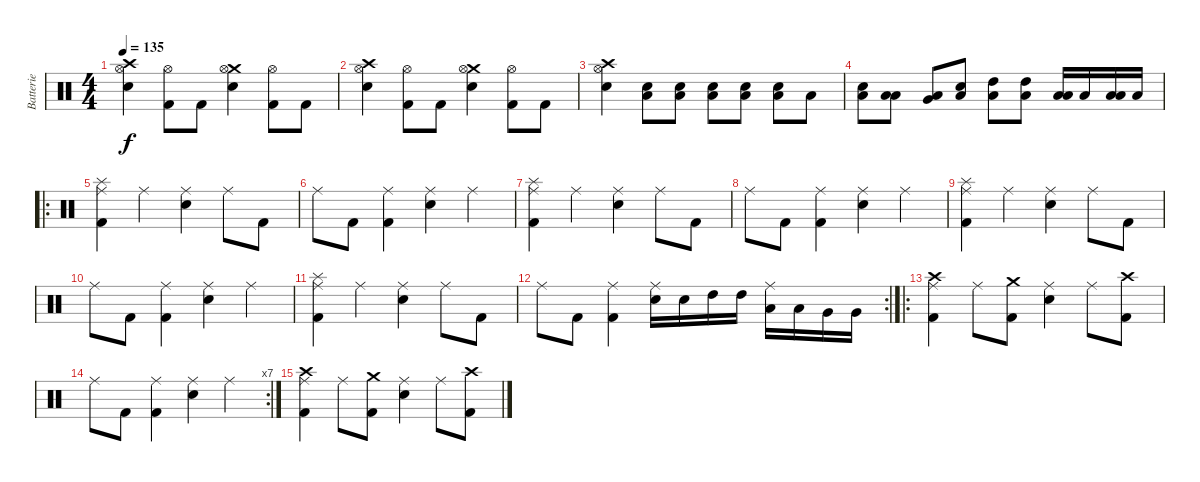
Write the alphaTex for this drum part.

\track ("Batterie" "Batterie") {instrument percussion}
\staff {score}
\articulation defaults
\ts (4 4)
\tempo 135
\clef neutral
\ks c
("Crash high (hit)" "Hi-Hat (open)" "Snare (hit) 2").4{dy f} ("Hi-Hat (open)" "Kick (hit) 2").8 "Kick (hit) 2".8 ("Crash medium (hit)" "Hi-Hat (open)" "Snare (hit) 2").4 ("Hi-Hat (open)" "Kick (hit) 2").8 "Kick (hit) 2".8 |
("Crash high (hit)" "Hi-Hat (open)" "Snare (hit) 2").4 ("Hi-Hat (open)" "Kick (hit) 2").8 "Kick (hit) 2".8 ("Crash medium (hit)" "Hi-Hat (open)" "Snare (hit) 2").4 ("Hi-Hat (open)" "Kick (hit) 2").8 "Kick (hit) 2".8 |
("Crash high (hit)" "Snare (hit) 2" "Hi-Hat (open)").4 ("Snare (hit) 2" "Low Floor Tom (hit)").8 ("Snare (hit) 2" "Low Floor Tom (hit)").8 ("Snare (hit) 2" "Low Floor Tom (hit)").8 ("Snare (hit) 2" "Low Floor Tom (hit)").8 ("Snare (hit) 2" "Low Floor Tom (hit)").8 "Low Floor Tom (hit)".8 |
("Snare (hit) 2" "Low Floor Tom (hit)").8 ("Low Tom (hit)" "Low Floor Tom (hit)").8 ("Very Low Tom (hit)" "Low Floor Tom (hit)").8 ("Snare (hit) 2" "Low Floor Tom (hit)").8 ("High Tom (hit)" "Low Floor Tom (hit)").8 ("High Tom (hit)" "Low Floor Tom (hit)").8 ("Low Tom (hit)" "Low Floor Tom (hit)").16 "Low Tom (hit)".16 ("Low Tom (hit)" "Low Floor Tom (hit)").16 "Low Tom (hit)".16 |
\ro
("Splash (hit)" "Ride (middle)" "Kick (hit) 2").4 "Ride (middle)".4 ("Ride (middle)" "Snare (hit) 2").4 "Ride (middle)".8 "Kick (hit) 2".8 |
"Ride (middle)".8 "Kick (hit) 2".8 ("Ride (middle)" "Kick (hit) 2").4 ("Ride (middle)" "Snare (hit) 2").4 "Ride (middle)".4 |
("Splash (hit)" "Ride (middle)" "Kick (hit) 2").4 "Ride (middle)".4 ("Ride (middle)" "Snare (hit) 2").4 "Ride (middle)".8 "Kick (hit) 2".8 |
"Ride (middle)".8 "Kick (hit) 2".8 ("Ride (middle)" "Kick (hit) 2").4 ("Ride (middle)" "Snare (hit) 2").4 "Ride (middle)".4 |
("Splash (hit)" "Ride (middle)" "Kick (hit) 2").4 "Ride (middle)".4 ("Ride (middle)" "Snare (hit) 2").4 "Ride (middle)".8 "Kick (hit) 2".8 |
"Ride (middle)".8 "Kick (hit) 2".8 ("Ride (middle)" "Kick (hit) 2").4 ("Ride (middle)" "Snare (hit) 2").4 "Ride (middle)".4 |
("Splash (hit)" "Ride (middle)" "Kick (hit) 2").4 "Ride (middle)".4 ("Ride (middle)" "Snare (hit) 2").4 "Ride (middle)".8 "Kick (hit) 2".8 |
\rc 2 "Ride (middle)".8 "Kick (hit) 2".8
("Ride (middle)" "Kick (hit) 2").4 ("Ride (middle)" "Snare (hit) 2").16 "Snare (hit) 2".16 "High Tom (hit)".16 "High Tom (hit)".16 ("Ride (middle)" "Low Tom (hit)").16 "Low Tom (hit)".16 "Very Low Tom (hit)".16 "Very Low Tom (hit)".16 |
\ro
("Crash high (hit)" "Ride (middle)" "Kick (hit) 2").4 "Ride (middle)".8 ("Crash medium (hit)" "Kick (hit) 2").8 ("Ride (middle)" "Snare (hit) 2").4 "Ride (middle)".8 ("Crash high (hit)" "Kick (hit) 2").8 |
\rc 7 "Ride (middle)".8 "Kick (hit) 2".8
("Ride (middle)" "Kick (hit) 2").4 ("Ride (middle)" "Snare (hit) 2").4 "Ride (middle)".4 |
("Crash high (hit)" "Ride (middle)" "Kick (hit) 2").4 "Ride (middle)".8 ("Crash medium (hit)" "Kick (hit) 2").8 ("Ride (middle)" "Snare (hit) 2").4 "Ride (middle)".8 ("Crash high (hit)" "Kick (hit) 2").8
